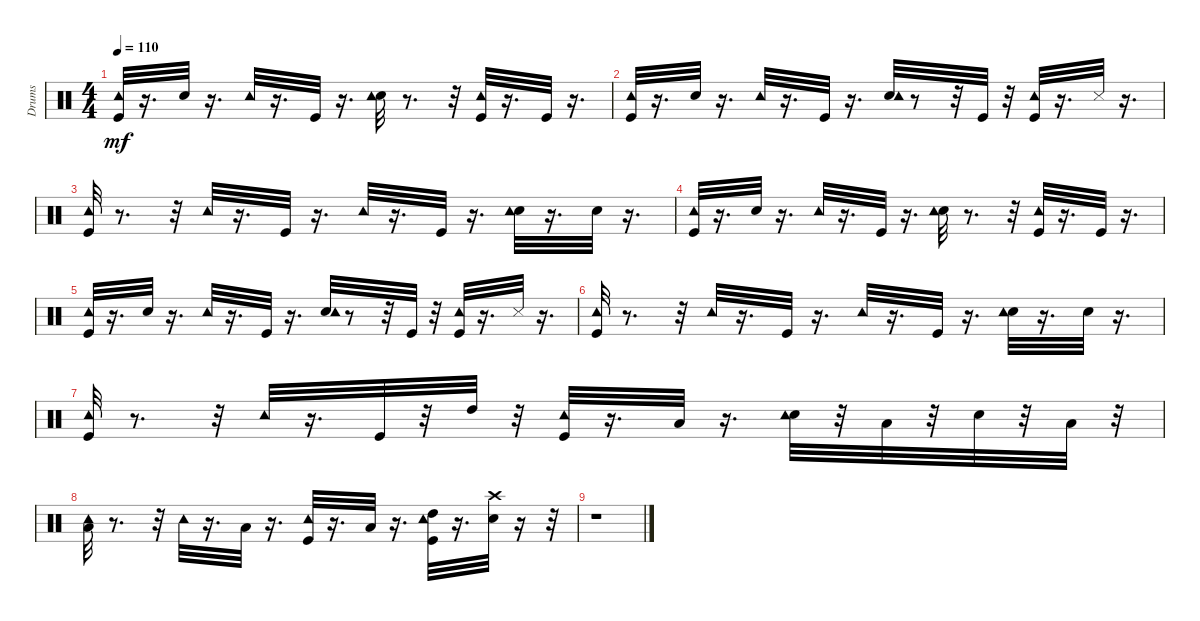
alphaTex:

\track ("Drums" "Drums") {instrument percussion}
\staff {score}
\articulation defaults
\ts (4 4)
\tempo 110
\clef neutral
\ks c
("Kick (hit)" "Tambourine (hit)").32{dy mf} r.16{d} "Snare (hit) 2".32 r.16{d} "Tambourine (hit)".32 r.16{d} "Kick (hit)".32 r.16{d} ("Snare (hit) 2" "Tambourine (hit)").32 r.8{d} r.32 ("Kick (hit)" "Tambourine (hit)").32 r.16{d} "Kick (hit)".32 r.16{d} |
("Kick (hit)" "Tambourine (hit)").32 r.16{d} "Snare (hit) 2".32 r.16{d} "Tambourine (hit)".32 r.16{d} "Kick (hit)".32 r.16{d} ("Snare (hit) 2" "Tambourine (hit)").32 r.8 r.32 "Kick (hit)".32 r.32 ("Kick (hit)" "Tambourine (hit)").32 r.16{d} "Snare (side stick) 3".32 r.16{d} |
("Kick (hit)" "Tambourine (hit)").32 r.8{d} r.32 "Tambourine (hit)".32 r.16{d} "Kick (hit)".32 r.16{d} "Tambourine (hit)".32 r.16{d} "Kick (hit)".32 r.16{d} ("Snare (hit) 2" "Tambourine (hit)").32 r.16{d} "Snare (hit) 2".32 r.16{d} |
("Kick (hit)" "Tambourine (hit)").32 r.16{d} "Snare (hit) 2".32 r.16{d} "Tambourine (hit)".32 r.16{d} "Kick (hit)".32 r.16{d} ("Snare (hit) 2" "Tambourine (hit)").32 r.8{d} r.32 ("Kick (hit)" "Tambourine (hit)").32 r.16{d} "Kick (hit)".32 r.16{d} |
("Kick (hit)" "Tambourine (hit)").32 r.16{d} "Snare (hit) 2".32 r.16{d} "Tambourine (hit)".32 r.16{d} "Kick (hit)".32 r.16{d} ("Snare (hit) 2" "Tambourine (hit)").32 r.8 r.32 "Kick (hit)".32 r.32 ("Kick (hit)" "Tambourine (hit)").32 r.16{d} "Snare (side stick) 3".32 r.16{d} |
("Kick (hit)" "Tambourine (hit)").32 r.8{d} r.32 "Tambourine (hit)".32 r.16{d} "Kick (hit)".32 r.16{d} "Tambourine (hit)".32 r.16{d} "Kick (hit)".32 r.16{d} ("Snare (hit) 2" "Tambourine (hit)").32 r.16{d} "Snare (hit) 2".32 r.16{d} |
("Kick (hit)" "Tambourine (hit)").32 r.8{d} r.32 "Tambourine (hit)".32 r.16{d} "Kick (hit)".32 r.32 "High Tom (hit)".32 r.32 ("Kick (hit)" "Tambourine (hit)").32 r.16{d} "Low Tom (hit)".32 r.16{d} ("Snare (hit) 2" "Tambourine (hit)").32 r.32 "Low Floor Tom (hit)".32 r.32 "Snare (hit) 2".32 r.32 "Low Floor Tom (hit)".32 r.32 |
("Low Floor Tom (hit)" "Tambourine (hit)").32 r.8{d} r.32 "Tambourine (hit)".32 r.16{d} "Low Floor Tom (hit)".32 r.16{d} ("Kick (hit)" "Tambourine (hit)").32 r.16{d} "Low Floor Tom (hit)".32 r.16{d} ("Kick (hit)" "High Tom (hit)" "Tambourine (hit)").32 r.16{d} ("Snare (hit) 2" "Crash high (hit)").32 r.16 r.32 |
r.1
